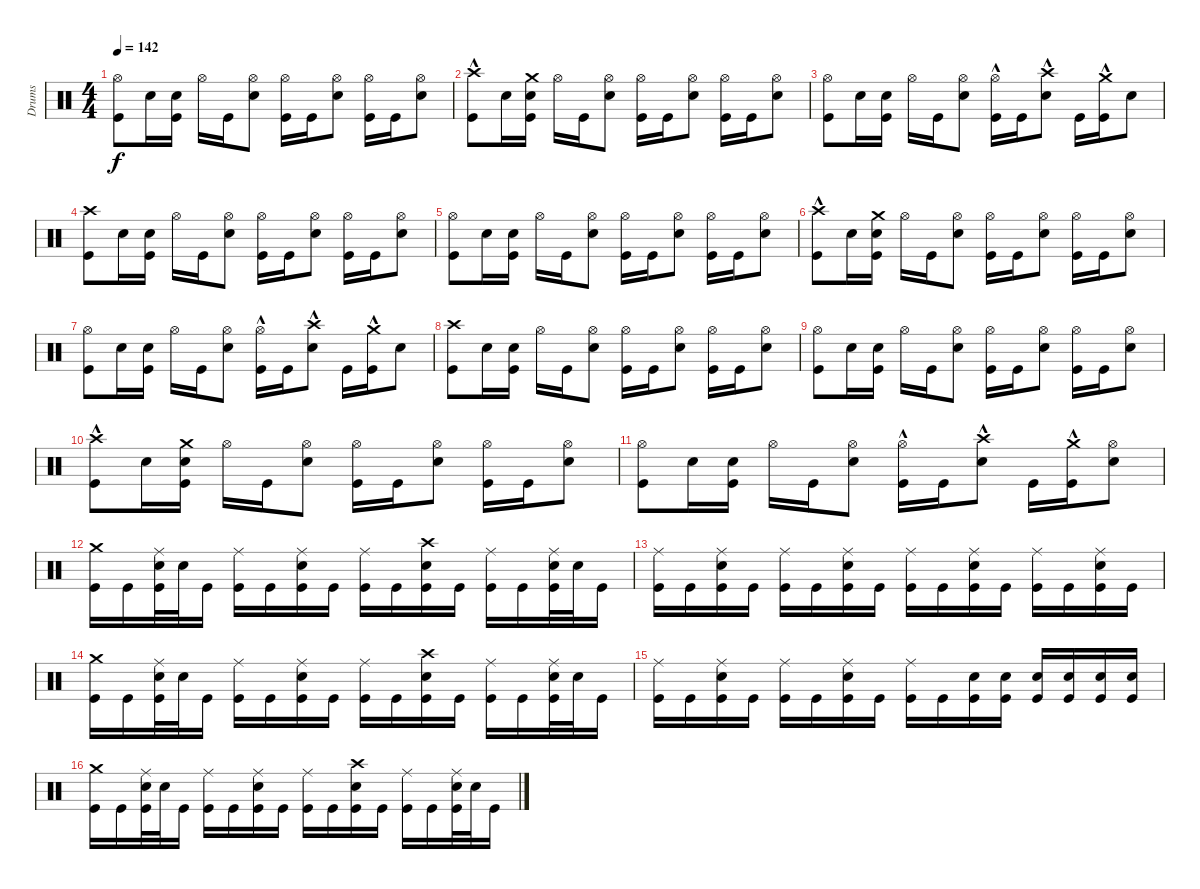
\track ("Drums" "Drums") {instrument percussion}
\staff {score}
\articulation defaults
\ts (4 4)
\tempo 142
\clef neutral
\ks c
("Hi-Hat (open)" "Kick (hit)").8{dy f} "Snare (hit) 2".16 ("Snare (hit) 2" "Kick (hit)").16 "Hi-Hat (open)".16 "Kick (hit)".16 ("Hi-Hat (open)" "Snare (hit) 2").8 ("Hi-Hat (open)" "Kick (hit)").16 "Kick (hit)".16 ("Hi-Hat (open)" "Snare (hit) 2").8 ("Hi-Hat (open)" "Kick (hit)").16 "Kick (hit)".16 ("Hi-Hat (open)" "Snare (hit) 2").8 |
("Crash high (hit)"{hac} "Kick (hit)").8 "Snare (hit) 2".16 ("Crash medium (hit)" "Snare (hit) 2" "Kick (hit)").16 "Hi-Hat (open)".16 "Kick (hit)".16 ("Hi-Hat (open)" "Snare (hit) 2").8 ("Hi-Hat (open)" "Kick (hit)").16 "Kick (hit)".16 ("Hi-Hat (open)" "Snare (hit) 2").8 ("Hi-Hat (open)" "Kick (hit)").16 "Kick (hit)".16 ("Hi-Hat (open)" "Snare (hit) 2").8 |
("Hi-Hat (open)" "Kick (hit)").8 "Snare (hit) 2".16 ("Snare (hit) 2" "Kick (hit)").16 "Hi-Hat (open)".16 "Kick (hit)".16 ("Hi-Hat (open)" "Snare (hit) 2").8 ("Hi-Hat (open)"{hac} "Kick (hit)").16 "Kick (hit)".16 ("Crash high (hit)"{hac} "Snare (hit) 2").8 "Kick (hit)".16 ("Crash medium (hit)"{hac} "Kick (hit)").16 "Snare (hit) 2".8 |
("Crash high (hit)" "Kick (hit)").8 "Snare (hit) 2".16 ("Snare (hit) 2" "Kick (hit)").16 "Hi-Hat (open)".16 "Kick (hit)".16 ("Hi-Hat (open)" "Snare (hit) 2").8 ("Hi-Hat (open)" "Kick (hit)").16 "Kick (hit)".16 ("Hi-Hat (open)" "Snare (hit) 2").8 ("Hi-Hat (open)" "Kick (hit)").16 "Kick (hit)".16 ("Hi-Hat (open)" "Snare (hit) 2").8 |
("Hi-Hat (open)" "Kick (hit)").8 "Snare (hit) 2".16 ("Snare (hit) 2" "Kick (hit)").16 "Hi-Hat (open)".16 "Kick (hit)".16 ("Hi-Hat (open)" "Snare (hit) 2").8 ("Hi-Hat (open)" "Kick (hit)").16 "Kick (hit)".16 ("Hi-Hat (open)" "Snare (hit) 2").8 ("Hi-Hat (open)" "Kick (hit)").16 "Kick (hit)".16 ("Hi-Hat (open)" "Snare (hit) 2").8 |
("Crash high (hit)"{hac} "Kick (hit)").8 "Snare (hit) 2".16 ("Crash medium (hit)" "Snare (hit) 2" "Kick (hit)").16 "Hi-Hat (open)".16 "Kick (hit)".16 ("Hi-Hat (open)" "Snare (hit) 2").8 ("Hi-Hat (open)" "Kick (hit)").16 "Kick (hit)".16 ("Hi-Hat (open)" "Snare (hit) 2").8 ("Hi-Hat (open)" "Kick (hit)").16 "Kick (hit)".16 ("Hi-Hat (open)" "Snare (hit) 2").8 |
("Hi-Hat (open)" "Kick (hit)").8 "Snare (hit) 2".16 ("Snare (hit) 2" "Kick (hit)").16 "Hi-Hat (open)".16 "Kick (hit)".16 ("Hi-Hat (open)" "Snare (hit) 2").8 ("Hi-Hat (open)"{hac} "Kick (hit)").16 "Kick (hit)".16 ("Crash high (hit)"{hac} "Snare (hit) 2").8 "Kick (hit)".16 ("Crash medium (hit)"{hac} "Kick (hit)").16 "Snare (hit) 2".8 |
("Crash high (hit)" "Kick (hit)").8 "Snare (hit) 2".16 ("Snare (hit) 2" "Kick (hit)").16 "Hi-Hat (open)".16 "Kick (hit)".16 ("Hi-Hat (open)" "Snare (hit) 2").8 ("Hi-Hat (open)" "Kick (hit)").16 "Kick (hit)".16 ("Hi-Hat (open)" "Snare (hit) 2").8 ("Hi-Hat (open)" "Kick (hit)").16 "Kick (hit)".16 ("Hi-Hat (open)" "Snare (hit) 2").8 |
("Hi-Hat (open)" "Kick (hit)").8 "Snare (hit) 2".16 ("Snare (hit) 2" "Kick (hit)").16 "Hi-Hat (open)".16 "Kick (hit)".16 ("Hi-Hat (open)" "Snare (hit) 2").8 ("Hi-Hat (open)" "Kick (hit)").16 "Kick (hit)".16 ("Hi-Hat (open)" "Snare (hit) 2").8 ("Hi-Hat (open)" "Kick (hit)").16 "Kick (hit)".16 ("Hi-Hat (open)" "Snare (hit) 2").8 |
("Crash high (hit)"{hac} "Kick (hit)").8 "Snare (hit) 2".16 ("Crash medium (hit)" "Snare (hit) 2" "Kick (hit)").16 "Hi-Hat (open)".16 "Kick (hit)".16 ("Hi-Hat (open)" "Snare (hit) 2").8 ("Hi-Hat (open)" "Kick (hit)").16 "Kick (hit)".16 ("Hi-Hat (open)" "Snare (hit) 2").8 ("Hi-Hat (open)" "Kick (hit)").16 "Kick (hit)".16 ("Hi-Hat (open)" "Snare (hit) 2").8 |
("Hi-Hat (open)" "Kick (hit)").8 "Snare (hit) 2".16 ("Snare (hit) 2" "Kick (hit)").16 "Hi-Hat (open)".16 "Kick (hit)".16 ("Hi-Hat (open)" "Snare (hit) 2").8 ("Hi-Hat (open)"{hac} "Kick (hit)").16 "Kick (hit)".16 ("Crash high (hit)"{hac} "Snare (hit) 2").8 "Kick (hit)".16 ("Crash medium (hit)"{hac} "Kick (hit)").16 ("Hi-Hat (open)" "Snare (hit) 2").8 |
("Crash medium (hit)" "Kick (hit)").16 "Kick (hit)".16 ("Ride (middle)" "Snare (hit) 2" "Kick (hit)").32 "Snare (hit) 2".32 "Kick (hit)".16 ("Ride (middle)" "Kick (hit)").16 "Kick (hit)".16 ("Ride (middle)" "Snare (hit) 2" "Kick (hit)").16 "Kick (hit)".16 ("Ride (middle)" "Kick (hit)").16 "Kick (hit)".16 ("Crash high (hit)" "Snare (hit) 2" "Kick (hit)").16 "Kick (hit)".16 ("Ride (middle)" "Kick (hit)").16 "Kick (hit)".16 ("Ride (middle)" "Snare (hit) 2" "Kick (hit)").32 "Snare (hit) 2".32 "Kick (hit)".16 |
("Ride (middle)" "Kick (hit)").16 "Kick (hit)".16 ("Ride (middle)" "Snare (hit) 2" "Kick (hit)").16 "Kick (hit)".16 ("Ride (middle)" "Kick (hit)").16 "Kick (hit)".16 ("Ride (middle)" "Snare (hit) 2" "Kick (hit)").16 "Kick (hit)".16 ("Ride (middle)" "Kick (hit)").16 "Kick (hit)".16 ("Ride (middle)" "Snare (hit) 2" "Kick (hit)").16 "Kick (hit)".16 ("Ride (middle)" "Kick (hit)").16 "Kick (hit)".16 ("Ride (middle)" "Snare (hit) 2" "Kick (hit)").16 "Kick (hit)".16 |
("Crash medium (hit)" "Kick (hit)").16 "Kick (hit)".16 ("Ride (middle)" "Snare (hit) 2" "Kick (hit)").32 "Snare (hit) 2".32 "Kick (hit)".16 ("Ride (middle)" "Kick (hit)").16 "Kick (hit)".16 ("Ride (middle)" "Snare (hit) 2" "Kick (hit)").16 "Kick (hit)".16 ("Ride (middle)" "Kick (hit)").16 "Kick (hit)".16 ("Crash high (hit)" "Snare (hit) 2" "Kick (hit)").16 "Kick (hit)".16 ("Ride (middle)" "Kick (hit)").16 "Kick (hit)".16 ("Ride (middle)" "Snare (hit) 2" "Kick (hit)").32 "Snare (hit) 2".32 "Kick (hit)".16 |
("Ride (middle)" "Kick (hit)").16 "Kick (hit)".16 ("Ride (middle)" "Snare (hit) 2" "Kick (hit)").16 "Kick (hit)".16 ("Ride (middle)" "Kick (hit)").16 "Kick (hit)".16 ("Ride (middle)" "Snare (hit) 2" "Kick (hit)").16 "Kick (hit)".16 ("Ride (middle)" "Kick (hit)").16 "Kick (hit)".16 ("Snare (hit) 2" "Kick (hit)").16 ("Snare (hit) 2" "Kick (hit)").16 ("Snare (hit) 2" "Kick (hit)").16 ("Snare (hit) 2" "Kick (hit)").16 ("Snare (hit) 2" "Kick (hit)").16 ("Snare (hit) 2" "Kick (hit)").16 |
("Crash medium (hit)" "Kick (hit)").16 "Kick (hit)".16 ("Ride (middle)" "Snare (hit) 2" "Kick (hit)").32 "Snare (hit) 2".32 "Kick (hit)".16 ("Ride (middle)" "Kick (hit)").16 "Kick (hit)".16 ("Ride (middle)" "Snare (hit) 2" "Kick (hit)").16 "Kick (hit)".16 ("Ride (middle)" "Kick (hit)").16 "Kick (hit)".16 ("Crash high (hit)" "Snare (hit) 2" "Kick (hit)").16 "Kick (hit)".16 ("Ride (middle)" "Kick (hit)").16 "Kick (hit)".16 ("Ride (middle)" "Snare (hit) 2" "Kick (hit)").32 "Snare (hit) 2".32 "Kick (hit)".16
